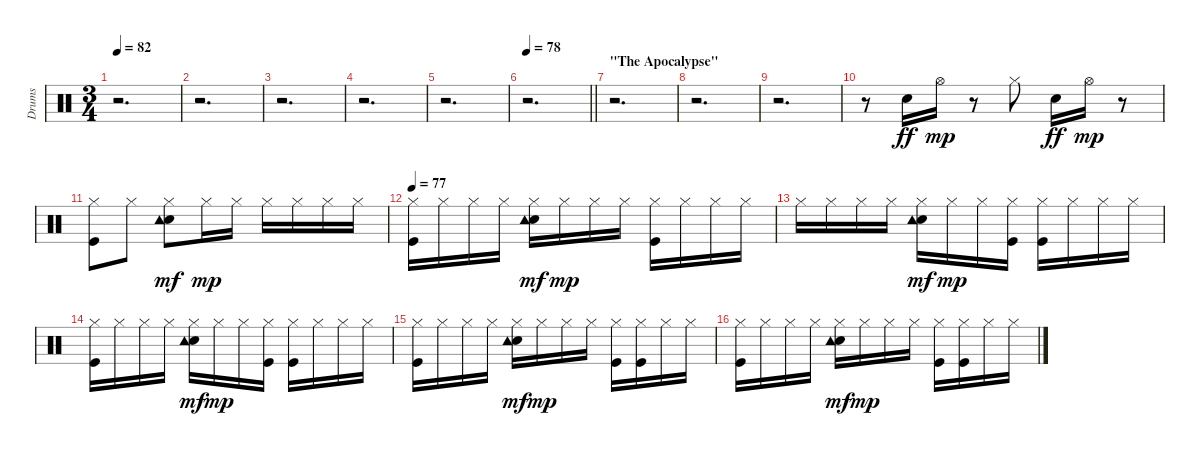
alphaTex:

\track ("Drums" "Drums") {instrument percussion}
\staff {score}
\articulation defaults
\ts (3 4)
\tempo 82
\clef neutral
\ks c
r.2{d dy mf} |
r.2{d} |
r.2{d} |
r.2{d} |
r.2{d} |
\tempo 78
\barLineRight lightlight
r.2{d} |
\section ("" "\"The Apocalypse\"")
r.2{d} |
r.2{d} |
r.2{d} |
r.8 "Electric Snare (hit)".16{dy ff} "Hi-Hat (open)".16{dy mp} r.8 "Hi-Hat (closed)".8 "Electric Snare (hit)".16{dy ff} "Hi-Hat (open)".16{dy mp} r.8 |
("Kick (hit)" "Hi-Hat (closed)").8 "Hi-Hat (closed)".8 ("Electric Snare (hit)" "Hi-Hat (closed)" "Tambourine (hit)").8{dy mf} "Hi-Hat (closed)".16{dy mp} "Hi-Hat (closed)".16 "Hi-Hat (closed)".16 "Hi-Hat (closed)".16 "Hi-Hat (closed)".16 "Hi-Hat (closed)".16 |
\tempo 77
("Kick (hit)" "Hi-Hat (closed)").16 "Hi-Hat (closed)".16 "Hi-Hat (closed)".16 "Hi-Hat (closed)".16 ("Electric Snare (hit)" "Hi-Hat (closed)" "Tambourine (hit)").16{dy mf} "Hi-Hat (closed)".16{dy mp} "Hi-Hat (closed)".16 "Hi-Hat (closed)".16 ("Kick (hit)" "Hi-Hat (closed)").16 "Hi-Hat (closed)".16 "Hi-Hat (closed)".16 "Hi-Hat (closed)".16 |
"Hi-Hat (closed)".16 "Hi-Hat (closed)".16 "Hi-Hat (closed)".16 "Hi-Hat (closed)".16 ("Electric Snare (hit)" "Hi-Hat (closed)" "Tambourine (hit)").16{dy mf} "Hi-Hat (closed)".16{dy mp} "Hi-Hat (closed)".16 ("Kick (hit)" "Hi-Hat (closed)").16 ("Kick (hit)" "Hi-Hat (closed)").16 "Hi-Hat (closed)".16 "Hi-Hat (closed)".16 "Hi-Hat (closed)".16 |
("Kick (hit)" "Hi-Hat (closed)").16 "Hi-Hat (closed)".16 "Hi-Hat (closed)".16 "Hi-Hat (closed)".16 ("Electric Snare (hit)" "Hi-Hat (closed)" "Tambourine (hit)").16{dy mf} "Hi-Hat (closed)".16{dy mp} "Hi-Hat (closed)".16 ("Kick (hit)" "Hi-Hat (closed)").16 ("Kick (hit)" "Hi-Hat (closed)").16 "Hi-Hat (closed)".16 "Hi-Hat (closed)".16 "Hi-Hat (closed)".16 |
("Kick (hit)" "Hi-Hat (closed)").16 "Hi-Hat (closed)".16 "Hi-Hat (closed)".16 "Hi-Hat (closed)".16 ("Electric Snare (hit)" "Hi-Hat (closed)" "Tambourine (hit)").16{dy mf} "Hi-Hat (closed)".16{dy mp} "Hi-Hat (closed)".16 "Hi-Hat (closed)".16 ("Kick (hit)" "Hi-Hat (closed)").16 ("Kick (hit)" "Hi-Hat (closed)").16 "Hi-Hat (closed)".16 "Hi-Hat (closed)".16 |
("Kick (hit)" "Hi-Hat (closed)").16 "Hi-Hat (closed)".16 "Hi-Hat (closed)".16 "Hi-Hat (closed)".16 ("Electric Snare (hit)" "Hi-Hat (closed)" "Tambourine (hit)").16{dy mf} "Hi-Hat (closed)".16{dy mp} "Hi-Hat (closed)".16 "Hi-Hat (closed)".16 ("Kick (hit)" "Hi-Hat (closed)").16 ("Kick (hit)" "Hi-Hat (closed)").16 "Hi-Hat (closed)".16 "Hi-Hat (closed)".16
